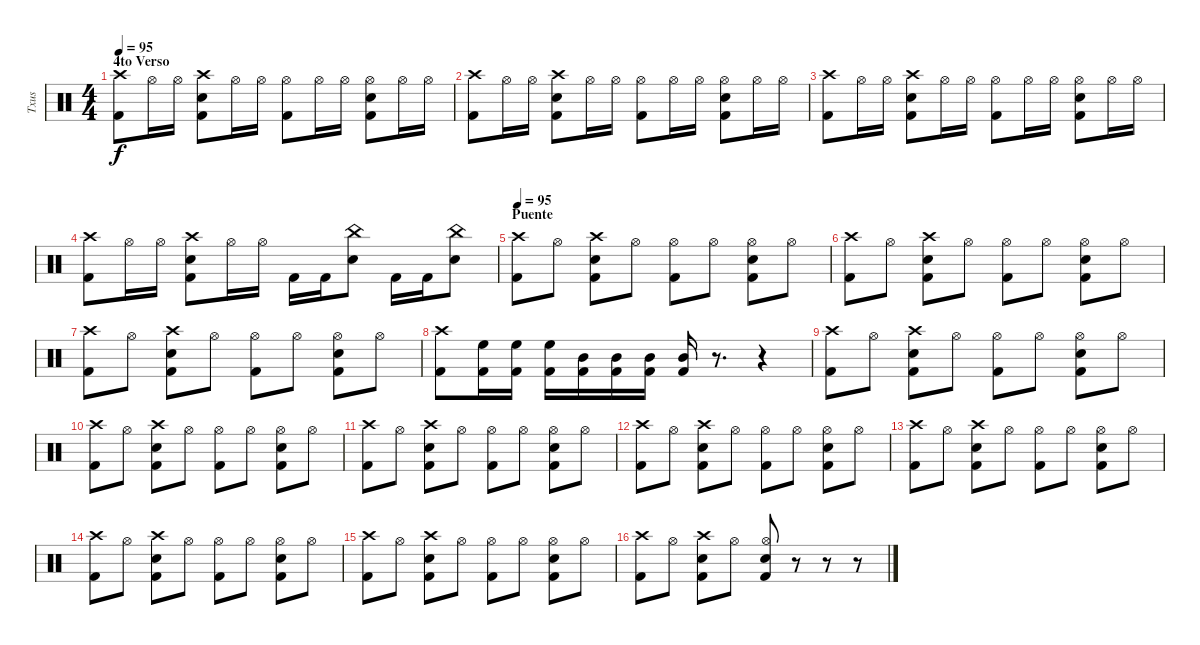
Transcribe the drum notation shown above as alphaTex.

\track ("Txus" "Txus") {instrument percussion}
\staff {score}
\articulation defaults
\ts (4 4)
\section ("" "4to Verso")
\tempo 95
\clef neutral
\ks c
("Kick (hit) 2" "Crash high (hit)").8{dy f} "Hi-Hat (open)".16 "Hi-Hat (open)".16 ("Kick (hit) 2" "Crash high (hit)" "Snare (hit) 2").8 "Hi-Hat (open)".16 "Hi-Hat (open)".16 ("Kick (hit) 2" "Hi-Hat (open)").8 "Hi-Hat (open)".16 "Hi-Hat (open)".16 ("Kick (hit) 2" "Hi-Hat (open)" "Snare (hit) 2").8 "Hi-Hat (open)".16 "Hi-Hat (open)".16 |
("Kick (hit) 2" "Crash high (hit)").8 "Hi-Hat (open)".16 "Hi-Hat (open)".16 ("Kick (hit) 2" "Crash high (hit)" "Snare (hit) 2").8 "Hi-Hat (open)".16 "Hi-Hat (open)".16 ("Kick (hit) 2" "Hi-Hat (open)").8 "Hi-Hat (open)".16 "Hi-Hat (open)".16 ("Kick (hit) 2" "Hi-Hat (open)" "Snare (hit) 2").8 "Hi-Hat (open)".16 "Hi-Hat (open)".16 |
("Kick (hit) 2" "Crash high (hit)").8 "Hi-Hat (open)".16 "Hi-Hat (open)".16 ("Kick (hit) 2" "Crash high (hit)" "Snare (hit) 2").8 "Hi-Hat (open)".16 "Hi-Hat (open)".16 ("Kick (hit) 2" "Hi-Hat (open)").8 "Hi-Hat (open)".16 "Hi-Hat (open)".16 ("Kick (hit) 2" "Hi-Hat (open)" "Snare (hit) 2").8 "Hi-Hat (open)".16 "Hi-Hat (open)".16 |
("Kick (hit) 2" "Crash high (hit)").8 "Hi-Hat (open)".16 "Hi-Hat (open)".16 ("Kick (hit) 2" "Crash high (hit)" "Snare (hit) 2").8 "Hi-Hat (open)".16 "Hi-Hat (open)".16 "Kick (hit) 2".16 "Kick (hit) 2".16 ("China (hit)" "Snare (hit) 2").8 "Kick (hit) 2".16 "Kick (hit) 2".16 ("China (hit)" "Snare (hit) 2").8 |
\section ("" "Puente")
\tempo 95
("Kick (hit) 2" "Crash high (hit)").8 "Hi-Hat (open)".8 ("Kick (hit) 2" "Crash high (hit)" "Snare (hit) 2").8 "Hi-Hat (open)".8 ("Kick (hit) 2" "Hi-Hat (open)").8 "Hi-Hat (open)".8 ("Kick (hit) 2" "Hi-Hat (open)" "Snare (hit) 2").8 "Hi-Hat (open)".8 |
("Kick (hit) 2" "Crash high (hit)").8 "Hi-Hat (open)".8 ("Kick (hit) 2" "Crash high (hit)" "Snare (hit) 2").8 "Hi-Hat (open)".8 ("Kick (hit) 2" "Hi-Hat (open)").8 "Hi-Hat (open)".8 ("Kick (hit) 2" "Hi-Hat (open)" "Snare (hit) 2").8 "Hi-Hat (open)".8 |
("Kick (hit) 2" "Crash high (hit)").8 "Hi-Hat (open)".8 ("Kick (hit) 2" "Crash high (hit)" "Snare (hit) 2").8 "Hi-Hat (open)".8 ("Kick (hit) 2" "Hi-Hat (open)").8 "Hi-Hat (open)".8 ("Kick (hit) 2" "Hi-Hat (open)" "Snare (hit) 2").8 "Hi-Hat (open)".8 |
("Kick (hit) 2" "Crash high (hit)").8 ("High Floor Tom (hit)" "Kick (hit) 2").16 ("High Floor Tom (hit)" "Kick (hit) 2").16 ("High Floor Tom (hit)" "Kick (hit) 2").16 ("Mid Tom (hit)" "Kick (hit) 2").16 ("Mid Tom (hit)" "Kick (hit) 2").16 ("Mid Tom (hit)" "Kick (hit) 2").16 ("Mid Tom (hit)" "Kick (hit) 2").16 r.8{d} r.4 |
("Kick (hit) 2" "Crash high (hit)").8 "Hi-Hat (open)".8 ("Kick (hit) 2" "Crash high (hit)" "Snare (hit) 2").8 "Hi-Hat (open)".8 ("Kick (hit) 2" "Hi-Hat (open)").8 "Hi-Hat (open)".8 ("Kick (hit) 2" "Hi-Hat (open)" "Snare (hit) 2").8 "Hi-Hat (open)".8 |
("Kick (hit) 2" "Crash high (hit)").8 "Hi-Hat (open)".8 ("Kick (hit) 2" "Crash high (hit)" "Snare (hit) 2").8 "Hi-Hat (open)".8 ("Kick (hit) 2" "Hi-Hat (open)").8 "Hi-Hat (open)".8 ("Kick (hit) 2" "Hi-Hat (open)" "Snare (hit) 2").8 "Hi-Hat (open)".8 |
("Kick (hit) 2" "Crash high (hit)").8 "Hi-Hat (open)".8 ("Kick (hit) 2" "Crash high (hit)" "Snare (hit) 2").8 "Hi-Hat (open)".8 ("Kick (hit) 2" "Hi-Hat (open)").8 "Hi-Hat (open)".8 ("Kick (hit) 2" "Hi-Hat (open)" "Snare (hit) 2").8 "Hi-Hat (open)".8 |
("Kick (hit) 2" "Crash high (hit)").8 "Hi-Hat (open)".8 ("Kick (hit) 2" "Crash high (hit)" "Snare (hit) 2").8 "Hi-Hat (open)".8 ("Kick (hit) 2" "Hi-Hat (open)").8 "Hi-Hat (open)".8 ("Kick (hit) 2" "Hi-Hat (open)" "Snare (hit) 2").8 "Hi-Hat (open)".8 |
("Kick (hit) 2" "Crash high (hit)").8 "Hi-Hat (open)".8 ("Kick (hit) 2" "Crash high (hit)" "Snare (hit) 2").8 "Hi-Hat (open)".8 ("Kick (hit) 2" "Hi-Hat (open)").8 "Hi-Hat (open)".8 ("Kick (hit) 2" "Hi-Hat (open)" "Snare (hit) 2").8 "Hi-Hat (open)".8 |
("Kick (hit) 2" "Crash high (hit)").8 "Hi-Hat (open)".8 ("Kick (hit) 2" "Crash high (hit)" "Snare (hit) 2").8 "Hi-Hat (open)".8 ("Kick (hit) 2" "Hi-Hat (open)").8 "Hi-Hat (open)".8 ("Kick (hit) 2" "Hi-Hat (open)" "Snare (hit) 2").8 "Hi-Hat (open)".8 |
("Kick (hit) 2" "Crash high (hit)").8 "Hi-Hat (open)".8 ("Kick (hit) 2" "Crash high (hit)" "Snare (hit) 2").8 "Hi-Hat (open)".8 ("Kick (hit) 2" "Hi-Hat (open)").8 "Hi-Hat (open)".8 ("Kick (hit) 2" "Hi-Hat (open)" "Snare (hit) 2").8 "Hi-Hat (open)".8 |
("Kick (hit) 2" "Crash high (hit)").8 "Hi-Hat (open)".8 ("Kick (hit) 2" "Crash high (hit)" "Snare (hit) 2").8 "Hi-Hat (open)".8 ("Kick (hit) 2" "Hi-Hat (open)" "Snare (hit) 2").8 r.8 r.8 r.8
